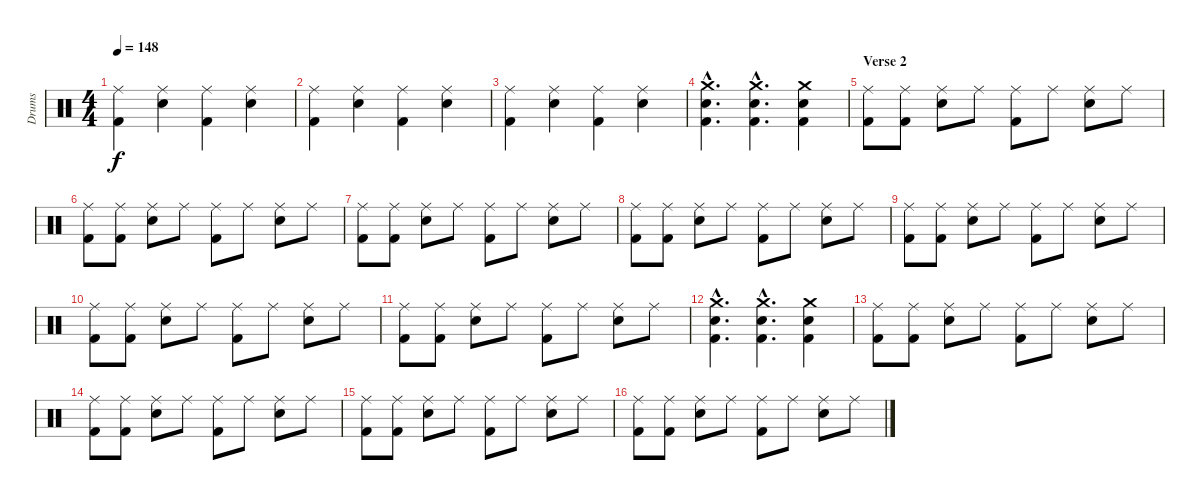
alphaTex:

\track ("Drums" "Drums") {instrument percussion}
\staff {score}
\articulation defaults
\ts (4 4)
\tempo 148
\clef neutral
\ks c
("Ride (middle)" "Kick (hit) 2").4{dy f} ("Ride (middle)" "Snare (hit) 2").4 ("Ride (middle)" "Kick (hit) 2").4 ("Ride (middle)" "Snare (hit) 2").4 |
("Ride (middle)" "Kick (hit) 2").4 ("Ride (middle)" "Snare (hit) 2").4 ("Ride (middle)" "Kick (hit) 2").4 ("Ride (middle)" "Snare (hit) 2").4 |
("Ride (middle)" "Kick (hit) 2").4 ("Ride (middle)" "Snare (hit) 2").4 ("Ride (middle)" "Kick (hit) 2").4 ("Ride (middle)" "Snare (hit) 2").4 |
("Crash medium (hit)"{hac} "Snare (hit) 2"{hac} "Kick (hit) 2"{hac}).4{d} ("Crash medium (hit)"{hac} "Snare (hit) 2"{hac} "Kick (hit) 2"{hac}).4{d} ("Crash medium (hit)" "Snare (hit) 2" "Kick (hit) 2").4 |
\section ("" "Verse 2")
("Ride (middle)" "Kick (hit) 2").8 ("Ride (middle)" "Kick (hit) 2").8 ("Ride (middle)" "Snare (hit) 2").8 "Ride (middle)".8 ("Ride (middle)" "Kick (hit) 2").8 "Ride (middle)".8 ("Ride (middle)" "Snare (hit) 2").8 "Ride (middle)".8 |
("Ride (middle)" "Kick (hit) 2").8 ("Ride (middle)" "Kick (hit) 2").8 ("Ride (middle)" "Snare (hit) 2").8 "Ride (middle)".8 ("Ride (middle)" "Kick (hit) 2").8 "Ride (middle)".8 ("Ride (middle)" "Snare (hit) 2").8 "Ride (middle)".8 |
("Ride (middle)" "Kick (hit) 2").8 ("Ride (middle)" "Kick (hit) 2").8 ("Ride (middle)" "Snare (hit) 2").8 "Ride (middle)".8 ("Ride (middle)" "Kick (hit) 2").8 "Ride (middle)".8 ("Ride (middle)" "Snare (hit) 2").8 "Ride (middle)".8 |
("Ride (middle)" "Kick (hit) 2").8 ("Ride (middle)" "Kick (hit) 2").8 ("Ride (middle)" "Snare (hit) 2").8 "Ride (middle)".8 ("Ride (middle)" "Kick (hit) 2").8 "Ride (middle)".8 ("Ride (middle)" "Snare (hit) 2").8 "Ride (middle)".8 |
("Ride (middle)" "Kick (hit) 2").8 ("Ride (middle)" "Kick (hit) 2").8 ("Ride (middle)" "Snare (hit) 2").8 "Ride (middle)".8 ("Ride (middle)" "Kick (hit) 2").8 "Ride (middle)".8 ("Ride (middle)" "Snare (hit) 2").8 "Ride (middle)".8 |
("Ride (middle)" "Kick (hit) 2").8 ("Ride (middle)" "Kick (hit) 2").8 ("Ride (middle)" "Snare (hit) 2").8 "Ride (middle)".8 ("Ride (middle)" "Kick (hit) 2").8 "Ride (middle)".8 ("Ride (middle)" "Snare (hit) 2").8 "Ride (middle)".8 |
("Ride (middle)" "Kick (hit) 2").8 ("Ride (middle)" "Kick (hit) 2").8 ("Ride (middle)" "Snare (hit) 2").8 "Ride (middle)".8 ("Ride (middle)" "Kick (hit) 2").8 "Ride (middle)".8 ("Ride (middle)" "Snare (hit) 2").8 "Ride (middle)".8 |
("Crash medium (hit)"{hac} "Snare (hit) 2"{hac} "Kick (hit) 2"{hac}).4{d} ("Crash medium (hit)"{hac} "Snare (hit) 2"{hac} "Kick (hit) 2"{hac}).4{d} ("Crash medium (hit)" "Snare (hit) 2" "Kick (hit) 2").4 |
("Ride (middle)" "Kick (hit) 2").8 ("Ride (middle)" "Kick (hit) 2").8 ("Ride (middle)" "Snare (hit) 2").8 "Ride (middle)".8 ("Ride (middle)" "Kick (hit) 2").8 "Ride (middle)".8 ("Ride (middle)" "Snare (hit) 2").8 "Ride (middle)".8 |
("Ride (middle)" "Kick (hit) 2").8 ("Ride (middle)" "Kick (hit) 2").8 ("Ride (middle)" "Snare (hit) 2").8 "Ride (middle)".8 ("Ride (middle)" "Kick (hit) 2").8 "Ride (middle)".8 ("Ride (middle)" "Snare (hit) 2").8 "Ride (middle)".8 |
("Ride (middle)" "Kick (hit) 2").8 ("Ride (middle)" "Kick (hit) 2").8 ("Ride (middle)" "Snare (hit) 2").8 "Ride (middle)".8 ("Ride (middle)" "Kick (hit) 2").8 "Ride (middle)".8 ("Ride (middle)" "Snare (hit) 2").8 "Ride (middle)".8 |
("Ride (middle)" "Kick (hit) 2").8 ("Ride (middle)" "Kick (hit) 2").8 ("Ride (middle)" "Snare (hit) 2").8 "Ride (middle)".8 ("Ride (middle)" "Kick (hit) 2").8 "Ride (middle)".8 ("Ride (middle)" "Snare (hit) 2").8 "Ride (middle)".8
